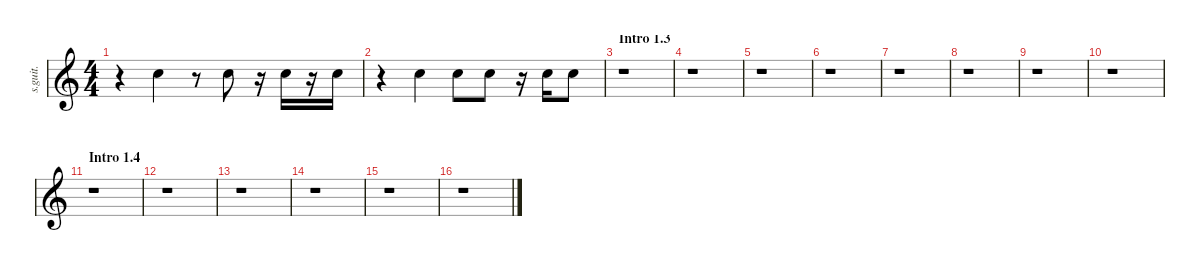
\defaultSystemsLayout 4
\hideDynamics
\bracketExtendMode nobrackets
\track ("Hand Clap" "s.guit.") {instrument percussion}
\staff {score}
\articulation defaults
\ts (4 4)
\tempo (192 hide)
\clef g2
\ks c
r.4{dy mf} "Hand Clap (hit)".4{lyrics (0 "") lyrics (1 "") lyrics (2 "") lyrics (3 "") lyrics (4 "")} r.8 "Hand Clap (hit)".8{lyrics (0 "") lyrics (1 "") lyrics (2 "") lyrics (3 "") lyrics (4 "")} r.16 "Hand Clap (hit)".16{lyrics (0 "") lyrics (1 "") lyrics (2 "") lyrics (3 "") lyrics (4 "")} r.16 "Hand Clap (hit)".16{lyrics (0 "") lyrics (1 "") lyrics (2 "") lyrics (3 "") lyrics (4 "")} |
r.4 "Hand Clap (hit)".4{lyrics (0 "") lyrics (1 "") lyrics (2 "") lyrics (3 "") lyrics (4 "")} "Hand Clap (hit)".8{lyrics (0 "") lyrics (1 "") lyrics (2 "") lyrics (3 "") lyrics (4 "")} "Hand Clap (hit)".8{lyrics (0 "") lyrics (1 "") lyrics (2 "") lyrics (3 "") lyrics (4 "")} r.16 "Hand Clap (hit)".16{lyrics (0 "") lyrics (1 "") lyrics (2 "") lyrics (3 "") lyrics (4 "")} "Hand Clap (hit)".8{lyrics (0 "") lyrics (1 "") lyrics (2 "") lyrics (3 "") lyrics (4 "")} |
\section ("" "Intro 1.3")
\tempo (195 hide)
r.1 |
r.1 |
r.1 |
\tempo (200 hide)
r.1 |
\tempo (205 hide)
r.1 |
r.1 |
r.1 |
r.1 |
\section ("" "Intro 1.4")
\tempo (210 hide)
r.1 |
r.1 |
r.1 |
r.1 |
r.1 |
r.1
